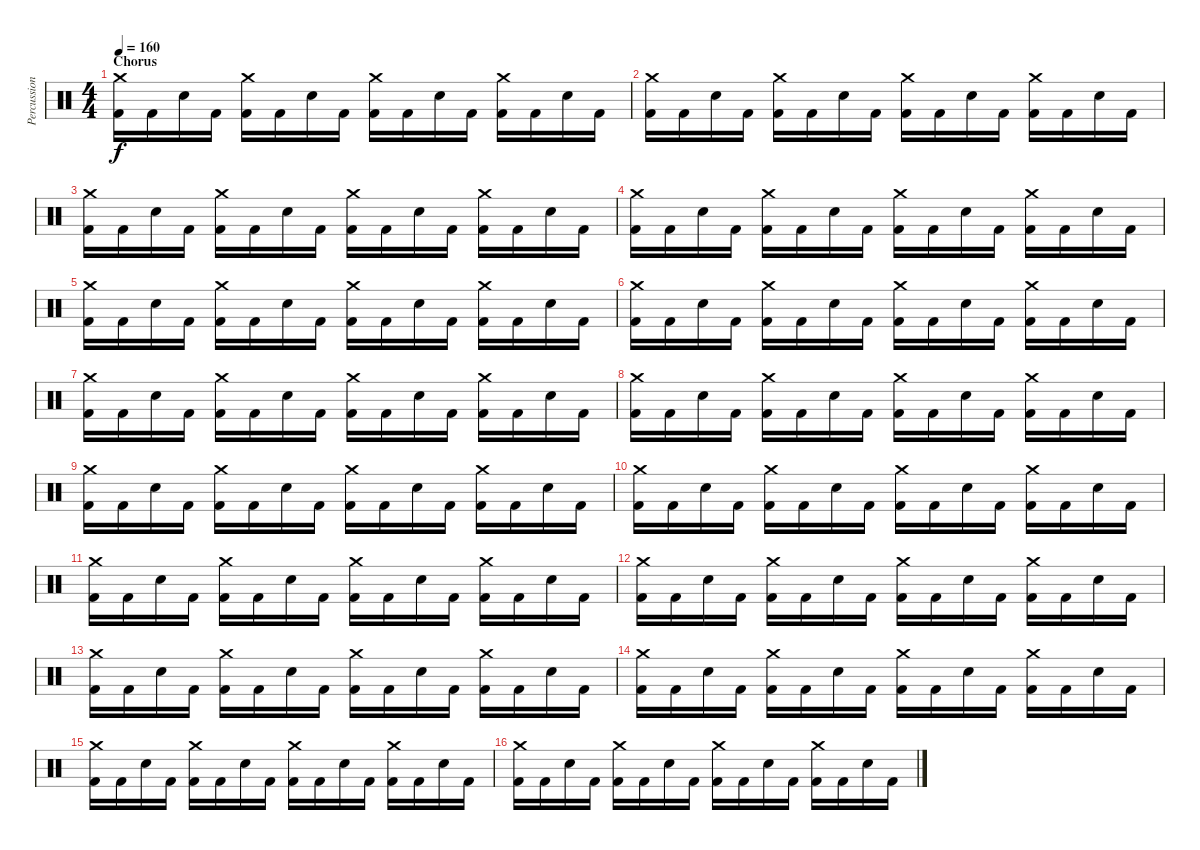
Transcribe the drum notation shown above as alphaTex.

\track ("Percussion" "Percussion") {instrument percussion}
\staff {score}
\articulation defaults
\ts (4 4)
\section ("" "Chorus")
\tempo 160
\clef neutral
\ks c
("Kick (hit) 2" "Crash medium (hit)").16{dy f} "Kick (hit) 2".16 "Electric Snare (hit)".16 "Kick (hit) 2".16 ("Kick (hit) 2" "Crash medium (hit)").16 "Kick (hit) 2".16 "Electric Snare (hit)".16 "Kick (hit) 2".16 ("Kick (hit) 2" "Crash medium (hit)").16 "Kick (hit) 2".16 "Electric Snare (hit)".16 "Kick (hit) 2".16 ("Kick (hit) 2" "Crash medium (hit)").16 "Kick (hit) 2".16 "Electric Snare (hit)".16 "Kick (hit) 2".16 |
("Kick (hit) 2" "Crash medium (hit)").16 "Kick (hit) 2".16 "Electric Snare (hit)".16 "Kick (hit) 2".16 ("Kick (hit) 2" "Crash medium (hit)").16 "Kick (hit) 2".16 "Electric Snare (hit)".16 "Kick (hit) 2".16 ("Kick (hit) 2" "Crash medium (hit)").16 "Kick (hit) 2".16 "Electric Snare (hit)".16 "Kick (hit) 2".16 ("Kick (hit) 2" "Crash medium (hit)").16 "Kick (hit) 2".16 "Electric Snare (hit)".16 "Kick (hit) 2".16 |
("Kick (hit) 2" "Crash medium (hit)").16 "Kick (hit) 2".16 "Electric Snare (hit)".16 "Kick (hit) 2".16 ("Kick (hit) 2" "Crash medium (hit)").16 "Kick (hit) 2".16 "Electric Snare (hit)".16 "Kick (hit) 2".16 ("Kick (hit) 2" "Crash medium (hit)").16 "Kick (hit) 2".16 "Electric Snare (hit)".16 "Kick (hit) 2".16 ("Kick (hit) 2" "Crash medium (hit)").16 "Kick (hit) 2".16 "Electric Snare (hit)".16 "Kick (hit) 2".16 |
("Kick (hit) 2" "Crash medium (hit)").16 "Kick (hit) 2".16 "Electric Snare (hit)".16 "Kick (hit) 2".16 ("Kick (hit) 2" "Crash medium (hit)").16 "Kick (hit) 2".16 "Electric Snare (hit)".16 "Kick (hit) 2".16 ("Kick (hit) 2" "Crash medium (hit)").16 "Kick (hit) 2".16 "Electric Snare (hit)".16 "Kick (hit) 2".16 ("Kick (hit) 2" "Crash medium (hit)").16 "Kick (hit) 2".16 "Electric Snare (hit)".16 "Kick (hit) 2".16 |
("Kick (hit) 2" "Crash medium (hit)").16 "Kick (hit) 2".16 "Electric Snare (hit)".16 "Kick (hit) 2".16 ("Kick (hit) 2" "Crash medium (hit)").16 "Kick (hit) 2".16 "Electric Snare (hit)".16 "Kick (hit) 2".16 ("Kick (hit) 2" "Crash medium (hit)").16 "Kick (hit) 2".16 "Electric Snare (hit)".16 "Kick (hit) 2".16 ("Kick (hit) 2" "Crash medium (hit)").16 "Kick (hit) 2".16 "Electric Snare (hit)".16 "Kick (hit) 2".16 |
("Kick (hit) 2" "Crash medium (hit)").16 "Kick (hit) 2".16 "Electric Snare (hit)".16 "Kick (hit) 2".16 ("Kick (hit) 2" "Crash medium (hit)").16 "Kick (hit) 2".16 "Electric Snare (hit)".16 "Kick (hit) 2".16 ("Kick (hit) 2" "Crash medium (hit)").16 "Kick (hit) 2".16 "Electric Snare (hit)".16 "Kick (hit) 2".16 ("Kick (hit) 2" "Crash medium (hit)").16 "Kick (hit) 2".16 "Electric Snare (hit)".16 "Kick (hit) 2".16 |
("Kick (hit) 2" "Crash medium (hit)").16 "Kick (hit) 2".16 "Electric Snare (hit)".16 "Kick (hit) 2".16 ("Kick (hit) 2" "Crash medium (hit)").16 "Kick (hit) 2".16 "Electric Snare (hit)".16 "Kick (hit) 2".16 ("Kick (hit) 2" "Crash medium (hit)").16 "Kick (hit) 2".16 "Electric Snare (hit)".16 "Kick (hit) 2".16 ("Kick (hit) 2" "Crash medium (hit)").16 "Kick (hit) 2".16 "Electric Snare (hit)".16 "Kick (hit) 2".16 |
("Kick (hit) 2" "Crash medium (hit)").16 "Kick (hit) 2".16 "Electric Snare (hit)".16 "Kick (hit) 2".16 ("Kick (hit) 2" "Crash medium (hit)").16 "Kick (hit) 2".16 "Electric Snare (hit)".16 "Kick (hit) 2".16 ("Kick (hit) 2" "Crash medium (hit)").16 "Kick (hit) 2".16 "Electric Snare (hit)".16 "Kick (hit) 2".16 ("Kick (hit) 2" "Crash medium (hit)").16 "Kick (hit) 2".16 "Electric Snare (hit)".16 "Kick (hit) 2".16 |
("Kick (hit) 2" "Crash medium (hit)").16 "Kick (hit) 2".16 "Electric Snare (hit)".16 "Kick (hit) 2".16 ("Kick (hit) 2" "Crash medium (hit)").16 "Kick (hit) 2".16 "Electric Snare (hit)".16 "Kick (hit) 2".16 ("Kick (hit) 2" "Crash medium (hit)").16 "Kick (hit) 2".16 "Electric Snare (hit)".16 "Kick (hit) 2".16 ("Kick (hit) 2" "Crash medium (hit)").16 "Kick (hit) 2".16 "Electric Snare (hit)".16 "Kick (hit) 2".16 |
("Kick (hit) 2" "Crash medium (hit)").16 "Kick (hit) 2".16 "Electric Snare (hit)".16 "Kick (hit) 2".16 ("Kick (hit) 2" "Crash medium (hit)").16 "Kick (hit) 2".16 "Electric Snare (hit)".16 "Kick (hit) 2".16 ("Kick (hit) 2" "Crash medium (hit)").16 "Kick (hit) 2".16 "Electric Snare (hit)".16 "Kick (hit) 2".16 ("Kick (hit) 2" "Crash medium (hit)").16 "Kick (hit) 2".16 "Electric Snare (hit)".16 "Kick (hit) 2".16 |
("Kick (hit) 2" "Crash medium (hit)").16 "Kick (hit) 2".16 "Electric Snare (hit)".16 "Kick (hit) 2".16 ("Kick (hit) 2" "Crash medium (hit)").16 "Kick (hit) 2".16 "Electric Snare (hit)".16 "Kick (hit) 2".16 ("Kick (hit) 2" "Crash medium (hit)").16 "Kick (hit) 2".16 "Electric Snare (hit)".16 "Kick (hit) 2".16 ("Kick (hit) 2" "Crash medium (hit)").16 "Kick (hit) 2".16 "Electric Snare (hit)".16 "Kick (hit) 2".16 |
("Kick (hit) 2" "Crash medium (hit)").16 "Kick (hit) 2".16 "Electric Snare (hit)".16 "Kick (hit) 2".16 ("Kick (hit) 2" "Crash medium (hit)").16 "Kick (hit) 2".16 "Electric Snare (hit)".16 "Kick (hit) 2".16 ("Kick (hit) 2" "Crash medium (hit)").16 "Kick (hit) 2".16 "Electric Snare (hit)".16 "Kick (hit) 2".16 ("Kick (hit) 2" "Crash medium (hit)").16 "Kick (hit) 2".16 "Electric Snare (hit)".16 "Kick (hit) 2".16 |
("Kick (hit) 2" "Crash medium (hit)").16 "Kick (hit) 2".16 "Electric Snare (hit)".16 "Kick (hit) 2".16 ("Kick (hit) 2" "Crash medium (hit)").16 "Kick (hit) 2".16 "Electric Snare (hit)".16 "Kick (hit) 2".16 ("Kick (hit) 2" "Crash medium (hit)").16 "Kick (hit) 2".16 "Electric Snare (hit)".16 "Kick (hit) 2".16 ("Kick (hit) 2" "Crash medium (hit)").16 "Kick (hit) 2".16 "Electric Snare (hit)".16 "Kick (hit) 2".16 |
("Kick (hit) 2" "Crash medium (hit)").16 "Kick (hit) 2".16 "Electric Snare (hit)".16 "Kick (hit) 2".16 ("Kick (hit) 2" "Crash medium (hit)").16 "Kick (hit) 2".16 "Electric Snare (hit)".16 "Kick (hit) 2".16 ("Kick (hit) 2" "Crash medium (hit)").16 "Kick (hit) 2".16 "Electric Snare (hit)".16 "Kick (hit) 2".16 ("Kick (hit) 2" "Crash medium (hit)").16 "Kick (hit) 2".16 "Electric Snare (hit)".16 "Kick (hit) 2".16 |
("Kick (hit) 2" "Crash medium (hit)").16 "Kick (hit) 2".16 "Electric Snare (hit)".16 "Kick (hit) 2".16 ("Kick (hit) 2" "Crash medium (hit)").16 "Kick (hit) 2".16 "Electric Snare (hit)".16 "Kick (hit) 2".16 ("Kick (hit) 2" "Crash medium (hit)").16 "Kick (hit) 2".16 "Electric Snare (hit)".16 "Kick (hit) 2".16 ("Kick (hit) 2" "Crash medium (hit)").16 "Kick (hit) 2".16 "Electric Snare (hit)".16 "Kick (hit) 2".16 |
("Kick (hit) 2" "Crash medium (hit)").16 "Kick (hit) 2".16 "Electric Snare (hit)".16 "Kick (hit) 2".16 ("Kick (hit) 2" "Crash medium (hit)").16 "Kick (hit) 2".16 "Electric Snare (hit)".16 "Kick (hit) 2".16 ("Kick (hit) 2" "Crash medium (hit)").16 "Kick (hit) 2".16 "Electric Snare (hit)".16 "Kick (hit) 2".16 ("Kick (hit) 2" "Crash medium (hit)").16 "Kick (hit) 2".16 "Electric Snare (hit)".16 "Kick (hit) 2".16
